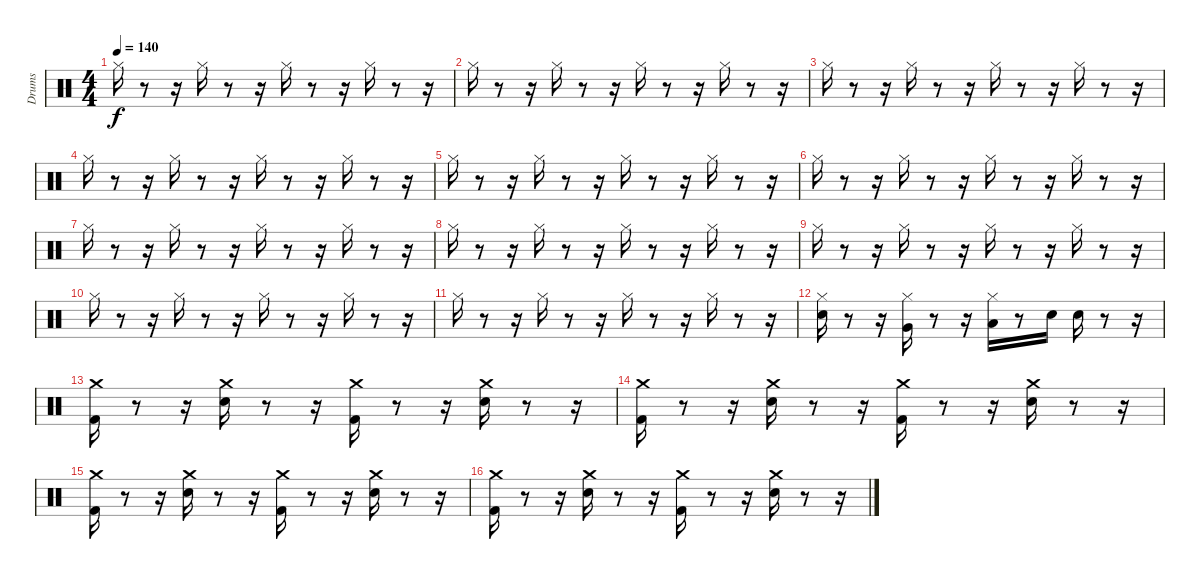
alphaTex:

\track ("Drums               " "Drums     ") {instrument percussion}
\staff {score}
\articulation defaults
\ts (4 4)
\tempo 140
\clef neutral
\ks c "Hi-Hat (closed)".16{dy f}
r.8 r.16 "Hi-Hat (closed)".16 r.8 r.16 "Hi-Hat (closed)".16 r.8 r.16 "Hi-Hat (closed)".16 r.8 r.16 |
"Hi-Hat (closed)".16 r.8 r.16 "Hi-Hat (closed)".16 r.8 r.16 "Hi-Hat (closed)".16 r.8 r.16 "Hi-Hat (closed)".16 r.8 r.16 |
"Hi-Hat (closed)".16 r.8 r.16 "Hi-Hat (closed)".16 r.8 r.16 "Hi-Hat (closed)".16 r.8 r.16 "Hi-Hat (closed)".16 r.8 r.16 |
"Hi-Hat (closed)".16 r.8 r.16 "Hi-Hat (closed)".16 r.8 r.16 "Hi-Hat (closed)".16 r.8 r.16 "Hi-Hat (closed)".16 r.8 r.16 |
"Hi-Hat (closed)".16 r.8 r.16 "Hi-Hat (closed)".16 r.8 r.16 "Hi-Hat (closed)".16 r.8 r.16 "Hi-Hat (closed)".16 r.8 r.16 |
"Hi-Hat (closed)".16 r.8 r.16 "Hi-Hat (closed)".16 r.8 r.16 "Hi-Hat (closed)".16 r.8 r.16 "Hi-Hat (closed)".16 r.8 r.16 |
"Hi-Hat (closed)".16 r.8 r.16 "Hi-Hat (closed)".16 r.8 r.16 "Hi-Hat (closed)".16 r.8 r.16 "Hi-Hat (closed)".16 r.8 r.16 |
"Hi-Hat (closed)".16 r.8 r.16 "Hi-Hat (closed)".16 r.8 r.16 "Hi-Hat (closed)".16 r.8 r.16 "Hi-Hat (closed)".16 r.8 r.16 |
"Hi-Hat (closed)".16 r.8 r.16 "Hi-Hat (closed)".16 r.8 r.16 "Hi-Hat (closed)".16 r.8 r.16 "Hi-Hat (closed)".16 r.8 r.16 |
"Hi-Hat (closed)".16 r.8 r.16 "Hi-Hat (closed)".16 r.8 r.16 "Hi-Hat (closed)".16 r.8 r.16 "Hi-Hat (closed)".16 r.8 r.16 |
"Hi-Hat (closed)".16 r.8 r.16 "Hi-Hat (closed)".16 r.8 r.16 "Hi-Hat (closed)".16 r.8 r.16 "Hi-Hat (closed)".16 r.8 r.16 |
("Hi-Hat (closed)" "Electric Snare (hit)").16 r.8 r.16 ("Hi-Hat (closed)" "Very Low Tom (hit)").16 r.8 r.16 ("Hi-Hat (closed)" "Low Tom (hit)").16 r.8 "Electric Snare (hit)".16 "Electric Snare (hit)".16 r.8 r.16 |
("Kick (hit) 2" "Crash medium (hit)").16 r.8 r.16 ("Electric Snare (hit)" "Crash medium (hit)").16 r.8 r.16 ("Kick (hit) 2" "Crash medium (hit)").16 r.8 r.16 ("Electric Snare (hit)" "Crash medium (hit)").16 r.8 r.16 |
("Kick (hit) 2" "Crash medium (hit)").16 r.8 r.16 ("Electric Snare (hit)" "Crash medium (hit)").16 r.8 r.16 ("Kick (hit) 2" "Crash medium (hit)").16 r.8 r.16 ("Electric Snare (hit)" "Crash medium (hit)").16 r.8 r.16 |
("Kick (hit) 2" "Crash medium (hit)").16 r.8 r.16 ("Electric Snare (hit)" "Crash medium (hit)").16 r.8 r.16 ("Kick (hit) 2" "Crash medium (hit)").16 r.8 r.16 ("Electric Snare (hit)" "Crash medium (hit)").16 r.8 r.16 |
("Kick (hit) 2" "Crash medium (hit)").16 r.8 r.16 ("Electric Snare (hit)" "Crash medium (hit)").16 r.8 r.16 ("Kick (hit) 2" "Crash medium (hit)").16 r.8 r.16 ("Electric Snare (hit)" "Crash medium (hit)").16 r.8 r.16
